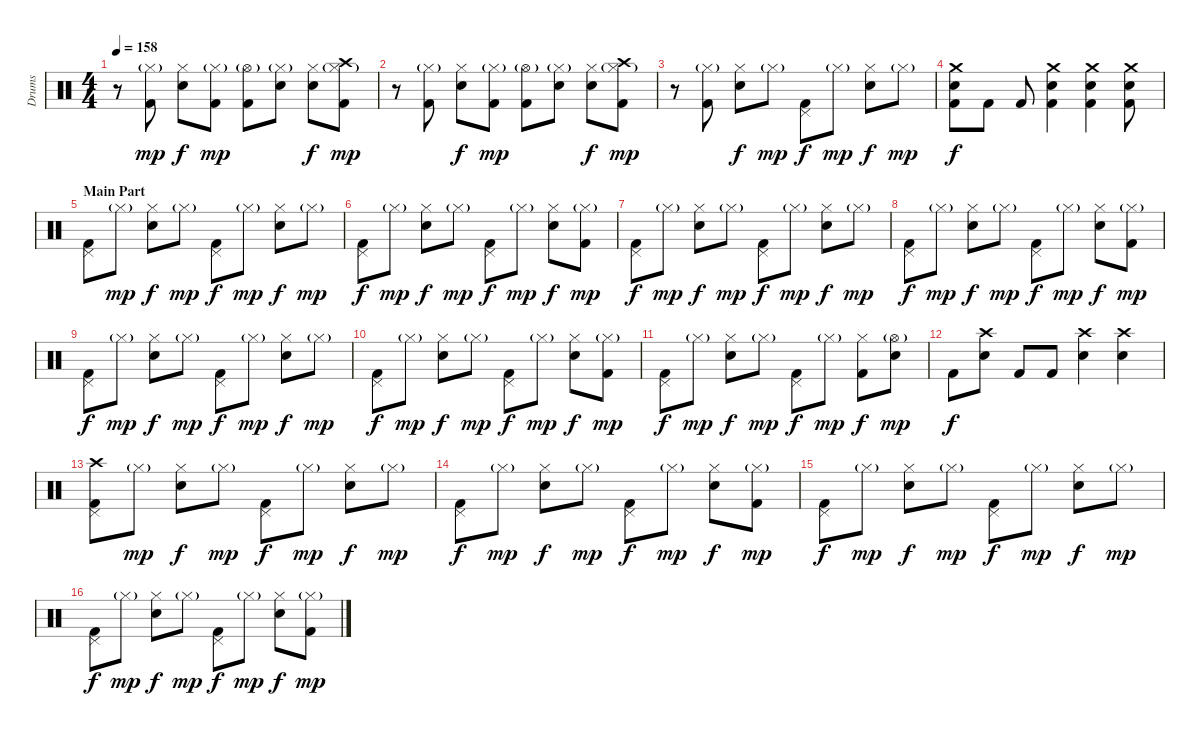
\track ("Drums" "Drums") {instrument percussion}
\staff {score}
\articulation defaults
\ts (4 4)
\tempo 158
\clef neutral
\ks c
r.8{dy mp} ("Hi-Hat (closed)"{g} "Kick (hit) 2").8 ("Hi-Hat (closed)" "Snare (hit) 2").8{dy f} ("Hi-Hat (closed)"{g} "Kick (hit) 2").8{dy mp} ("Hi-Hat (open)"{g} "Kick (hit) 2").8 ("Hi-Hat (closed)"{g} "Snare (hit) 2").8 ("Hi-Hat (closed)" "Snare (hit) 2").8{dy f} ("Crash high (hit)" "Hi-Hat (closed)"{g} "Kick (hit) 2").8{dy mp} |
r.8 ("Hi-Hat (closed)"{g} "Kick (hit) 2").8 ("Hi-Hat (closed)" "Snare (hit) 2").8{dy f} ("Hi-Hat (closed)"{g} "Kick (hit) 2").8{dy mp} ("Hi-Hat (open)"{g} "Kick (hit) 2").8 ("Hi-Hat (closed)"{g} "Snare (hit) 2").8 ("Hi-Hat (closed)" "Snare (hit) 2").8{dy f} ("Crash high (hit)" "Hi-Hat (closed)"{g} "Kick (hit) 2").8{dy mp} |
r.8 ("Hi-Hat (closed)"{g} "Kick (hit) 2").8 ("Hi-Hat (closed)" "Snare (hit) 2").8{dy f} "Hi-Hat (closed)"{g}.8{dy mp} ("Pedal Hi-Hat (hit)" "Kick (hit) 2").8{dy f} "Hi-Hat (closed)"{g}.8{dy mp} ("Hi-Hat (closed)" "Snare (hit) 2").8{dy f} "Hi-Hat (closed)"{g}.8{dy mp} |
("Crash medium (hit)" "Snare (hit) 2" "Kick (hit) 2").8{dy f} "Kick (hit) 2".8 "Kick (hit) 2".8 ("Crash medium (hit)" "Snare (hit) 2" "Kick (hit) 2").4 ("Crash medium (hit)" "Snare (hit) 2" "Kick (hit) 2").4 ("Crash medium (hit)" "Snare (hit) 2" "Kick (hit) 2").8 |
\section ("" "Main Part")
("Pedal Hi-Hat (hit)" "Kick (hit) 2").8 "Hi-Hat (closed)"{g}.8{dy mp} ("Hi-Hat (closed)" "Snare (hit) 2").8{dy f} "Hi-Hat (closed)"{g}.8{dy mp} ("Pedal Hi-Hat (hit)" "Kick (hit) 2").8{dy f} "Hi-Hat (closed)"{g}.8{dy mp} ("Hi-Hat (closed)" "Snare (hit) 2").8{dy f} "Hi-Hat (closed)"{g}.8{dy mp} |
("Pedal Hi-Hat (hit)" "Kick (hit) 2").8{dy f} "Hi-Hat (closed)"{g}.8{dy mp} ("Hi-Hat (closed)" "Snare (hit) 2").8{dy f} "Hi-Hat (closed)"{g}.8{dy mp} ("Pedal Hi-Hat (hit)" "Kick (hit) 2").8{dy f} "Hi-Hat (closed)"{g}.8{dy mp} ("Hi-Hat (closed)" "Snare (hit) 2").8{dy f} ("Hi-Hat (closed)"{g} "Kick (hit) 2").8{dy mp} |
("Pedal Hi-Hat (hit)" "Kick (hit) 2").8{dy f} "Hi-Hat (closed)"{g}.8{dy mp} ("Hi-Hat (closed)" "Snare (hit) 2").8{dy f} "Hi-Hat (closed)"{g}.8{dy mp} ("Pedal Hi-Hat (hit)" "Kick (hit) 2").8{dy f} "Hi-Hat (closed)"{g}.8{dy mp} ("Hi-Hat (closed)" "Snare (hit) 2").8{dy f} "Hi-Hat (closed)"{g}.8{dy mp} |
("Pedal Hi-Hat (hit)" "Kick (hit) 2").8{dy f} "Hi-Hat (closed)"{g}.8{dy mp} ("Hi-Hat (closed)" "Snare (hit) 2").8{dy f} "Hi-Hat (closed)"{g}.8{dy mp} ("Pedal Hi-Hat (hit)" "Kick (hit) 2").8{dy f} "Hi-Hat (closed)"{g}.8{dy mp} ("Hi-Hat (closed)" "Snare (hit) 2").8{dy f} ("Hi-Hat (closed)"{g} "Kick (hit) 2").8{dy mp} |
("Pedal Hi-Hat (hit)" "Kick (hit) 2").8{dy f} "Hi-Hat (closed)"{g}.8{dy mp} ("Hi-Hat (closed)" "Snare (hit) 2").8{dy f} "Hi-Hat (closed)"{g}.8{dy mp} ("Pedal Hi-Hat (hit)" "Kick (hit) 2").8{dy f} "Hi-Hat (closed)"{g}.8{dy mp} ("Hi-Hat (closed)" "Snare (hit) 2").8{dy f} "Hi-Hat (closed)"{g}.8{dy mp} |
("Pedal Hi-Hat (hit)" "Kick (hit) 2").8{dy f} "Hi-Hat (closed)"{g}.8{dy mp} ("Hi-Hat (closed)" "Snare (hit) 2").8{dy f} "Hi-Hat (closed)"{g}.8{dy mp} ("Pedal Hi-Hat (hit)" "Kick (hit) 2").8{dy f} "Hi-Hat (closed)"{g}.8{dy mp} ("Hi-Hat (closed)" "Snare (hit) 2").8{dy f} ("Hi-Hat (closed)"{g} "Kick (hit) 2").8{dy mp} |
("Pedal Hi-Hat (hit)" "Kick (hit) 2").8{dy f} "Hi-Hat (closed)"{g}.8{dy mp} ("Hi-Hat (closed)" "Snare (hit) 2").8{dy f} "Hi-Hat (closed)"{g}.8{dy mp} ("Pedal Hi-Hat (hit)" "Kick (hit) 2").8{dy f} "Hi-Hat (closed)"{g}.8{dy mp} ("Hi-Hat (closed)" "Kick (hit) 2").8{dy f} ("Hi-Hat (open)"{g} "Snare (hit) 2").8{dy mp} |
"Kick (hit) 2".8{dy f} ("Crash high (hit)" "Snare (hit) 2").8 "Kick (hit) 2".8 "Kick (hit) 2".8 ("Crash high (hit)" "Snare (hit) 2").4 ("Crash high (hit)" "Snare (hit) 2").4 |
("Crash high (hit)" "Pedal Hi-Hat (hit)" "Kick (hit) 2").8 "Hi-Hat (closed)"{g}.8{dy mp} ("Hi-Hat (closed)" "Snare (hit) 2").8{dy f} "Hi-Hat (closed)"{g}.8{dy mp} ("Pedal Hi-Hat (hit)" "Kick (hit) 2").8{dy f} "Hi-Hat (closed)"{g}.8{dy mp} ("Hi-Hat (closed)" "Snare (hit) 2").8{dy f} "Hi-Hat (closed)"{g}.8{dy mp} |
("Pedal Hi-Hat (hit)" "Kick (hit) 2").8{dy f} "Hi-Hat (closed)"{g}.8{dy mp} ("Hi-Hat (closed)" "Snare (hit) 2").8{dy f} "Hi-Hat (closed)"{g}.8{dy mp} ("Pedal Hi-Hat (hit)" "Kick (hit) 2").8{dy f} "Hi-Hat (closed)"{g}.8{dy mp} ("Hi-Hat (closed)" "Snare (hit) 2").8{dy f} ("Hi-Hat (closed)"{g} "Kick (hit) 2").8{dy mp} |
("Pedal Hi-Hat (hit)" "Kick (hit) 2").8{dy f} "Hi-Hat (closed)"{g}.8{dy mp} ("Hi-Hat (closed)" "Snare (hit) 2").8{dy f} "Hi-Hat (closed)"{g}.8{dy mp} ("Pedal Hi-Hat (hit)" "Kick (hit) 2").8{dy f} "Hi-Hat (closed)"{g}.8{dy mp} ("Hi-Hat (closed)" "Snare (hit) 2").8{dy f} "Hi-Hat (closed)"{g}.8{dy mp} |
("Pedal Hi-Hat (hit)" "Kick (hit) 2").8{dy f} "Hi-Hat (closed)"{g}.8{dy mp} ("Hi-Hat (closed)" "Snare (hit) 2").8{dy f} "Hi-Hat (closed)"{g}.8{dy mp} ("Pedal Hi-Hat (hit)" "Kick (hit) 2").8{dy f} "Hi-Hat (closed)"{g}.8{dy mp} ("Hi-Hat (closed)" "Snare (hit) 2").8{dy f} ("Hi-Hat (closed)"{g} "Kick (hit) 2").8{dy mp}
